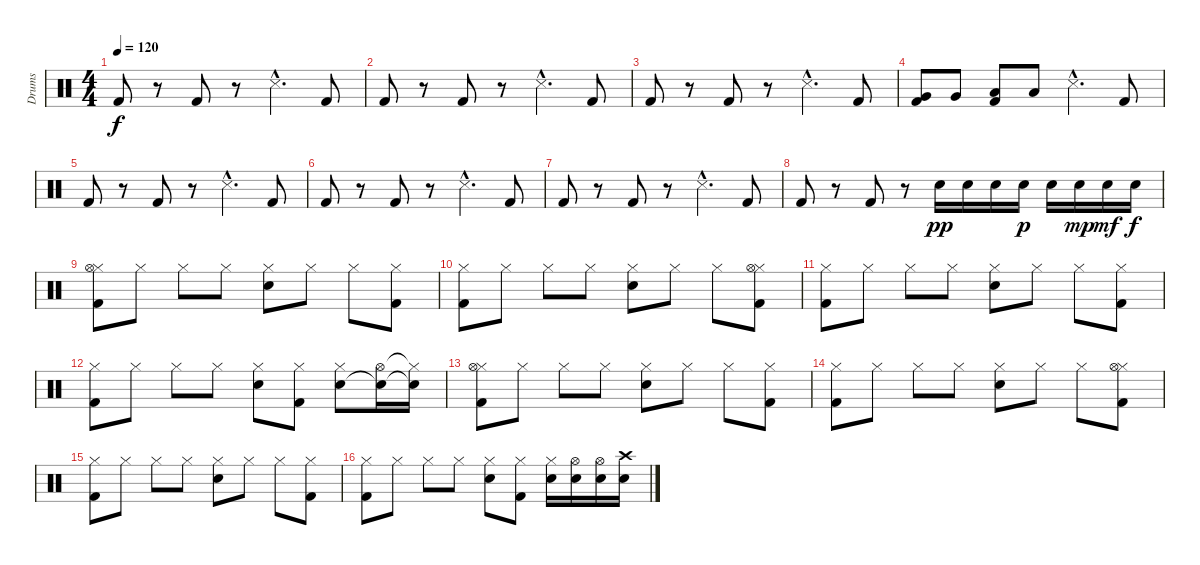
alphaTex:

\track ("Drums" "Drums") {instrument percussion}
\staff {score}
\articulation defaults
\ts (4 4)
\tempo 120
\clef neutral
\ks c "Kick (hit) 2".8{dy f}
r.8 "Kick (hit) 2".8 r.8 "Snare (side stick) 3"{hac}.4{d} "Kick (hit) 2".8 |
"Kick (hit) 2".8 r.8 "Kick (hit) 2".8 r.8 "Snare (side stick) 3"{hac}.4{d} "Kick (hit) 2".8 |
"Kick (hit) 2".8 r.8 "Kick (hit) 2".8 r.8 "Snare (side stick) 3"{hac}.4{d} "Kick (hit) 2".8 |
("Very Low Tom (hit)" "Kick (hit) 2").8 "Very Low Tom (hit)".8 ("Low Tom (hit)" "Kick (hit) 2").8 "Low Tom (hit)".8 "Snare (side stick) 3"{hac}.4{d} "Kick (hit) 2".8 |
"Kick (hit) 2".8 r.8 "Kick (hit) 2".8 r.8 "Snare (side stick) 3"{hac}.4{d} "Kick (hit) 2".8 |
"Kick (hit) 2".8 r.8 "Kick (hit) 2".8 r.8 "Snare (side stick) 3"{hac}.4{d} "Kick (hit) 2".8 |
"Kick (hit) 2".8 r.8 "Kick (hit) 2".8 r.8 "Snare (side stick) 3"{hac}.4{d} "Kick (hit) 2".8 |
"Kick (hit) 2".8 r.8 "Kick (hit) 2".8 r.8 "Electric Snare (hit)".16{dy pp} "Electric Snare (hit)".16 "Electric Snare (hit)".16 "Electric Snare (hit)".16{dy p} "Electric Snare (hit)".16 "Electric Snare (hit)".16{dy mp} "Electric Snare (hit)".16{dy mf} "Electric Snare (hit)".16{dy f} |
("Hi-Hat (closed)" "Hi-Hat (open)" "Kick (hit) 2").8 "Hi-Hat (closed)".8 "Hi-Hat (closed)".8 "Hi-Hat (closed)".8 ("Hi-Hat (closed)" "Electric Snare (hit)").8 "Hi-Hat (closed)".8 "Hi-Hat (closed)".8 ("Hi-Hat (closed)" "Kick (hit) 2").8 |
("Hi-Hat (closed)" "Kick (hit) 2").8 "Hi-Hat (closed)".8 "Hi-Hat (closed)".8 "Hi-Hat (closed)".8 ("Hi-Hat (closed)" "Electric Snare (hit)").8 "Hi-Hat (closed)".8 "Hi-Hat (closed)".8 ("Hi-Hat (closed)" "Hi-Hat (open)" "Kick (hit) 2").8 |
("Hi-Hat (closed)" "Kick (hit) 2").8 "Hi-Hat (closed)".8 "Hi-Hat (closed)".8 "Hi-Hat (closed)".8 ("Hi-Hat (closed)" "Electric Snare (hit)").8 "Hi-Hat (closed)".8 "Hi-Hat (closed)".8 ("Hi-Hat (closed)" "Kick (hit) 2").8 |
("Hi-Hat (closed)" "Kick (hit) 2").8 "Hi-Hat (closed)".8 "Hi-Hat (closed)".8 "Hi-Hat (closed)".8 ("Hi-Hat (closed)" "Electric Snare (hit)").8 ("Hi-Hat (closed)" "Kick (hit) 2").8 ("Hi-Hat (closed)" "Electric Snare (hit)").8 ("Hi-Hat (open)" "Electric Snare (hit)"{t}).16 ("Hi-Hat (closed)"{t} "Electric Snare (hit)"{t}).16 |
("Hi-Hat (closed)" "Hi-Hat (open)" "Kick (hit) 2").8 "Hi-Hat (closed)".8 "Hi-Hat (closed)".8 "Hi-Hat (closed)".8 ("Hi-Hat (closed)" "Electric Snare (hit)").8 "Hi-Hat (closed)".8 "Hi-Hat (closed)".8 ("Hi-Hat (closed)" "Kick (hit) 2").8 |
("Hi-Hat (closed)" "Kick (hit) 2").8 "Hi-Hat (closed)".8 "Hi-Hat (closed)".8 "Hi-Hat (closed)".8 ("Hi-Hat (closed)" "Electric Snare (hit)").8 "Hi-Hat (closed)".8 "Hi-Hat (closed)".8 ("Hi-Hat (closed)" "Hi-Hat (open)" "Kick (hit) 2").8 |
("Hi-Hat (closed)" "Kick (hit) 2").8 "Hi-Hat (closed)".8 "Hi-Hat (closed)".8 "Hi-Hat (closed)".8 ("Hi-Hat (closed)" "Electric Snare (hit)").8 "Hi-Hat (closed)".8 "Hi-Hat (closed)".8 ("Hi-Hat (closed)" "Kick (hit) 2").8 |
("Hi-Hat (closed)" "Kick (hit) 2").8 "Hi-Hat (closed)".8 "Hi-Hat (closed)".8 "Hi-Hat (closed)".8 ("Hi-Hat (closed)" "Electric Snare (hit)").8 ("Hi-Hat (closed)" "Kick (hit) 2").8 ("Hi-Hat (closed)" "Electric Snare (hit)").16 ("Hi-Hat (open)" "Electric Snare (hit)").16 ("Hi-Hat (open)" "Electric Snare (hit)").16 ("Crash high (hit)" "Electric Snare (hit)").16
